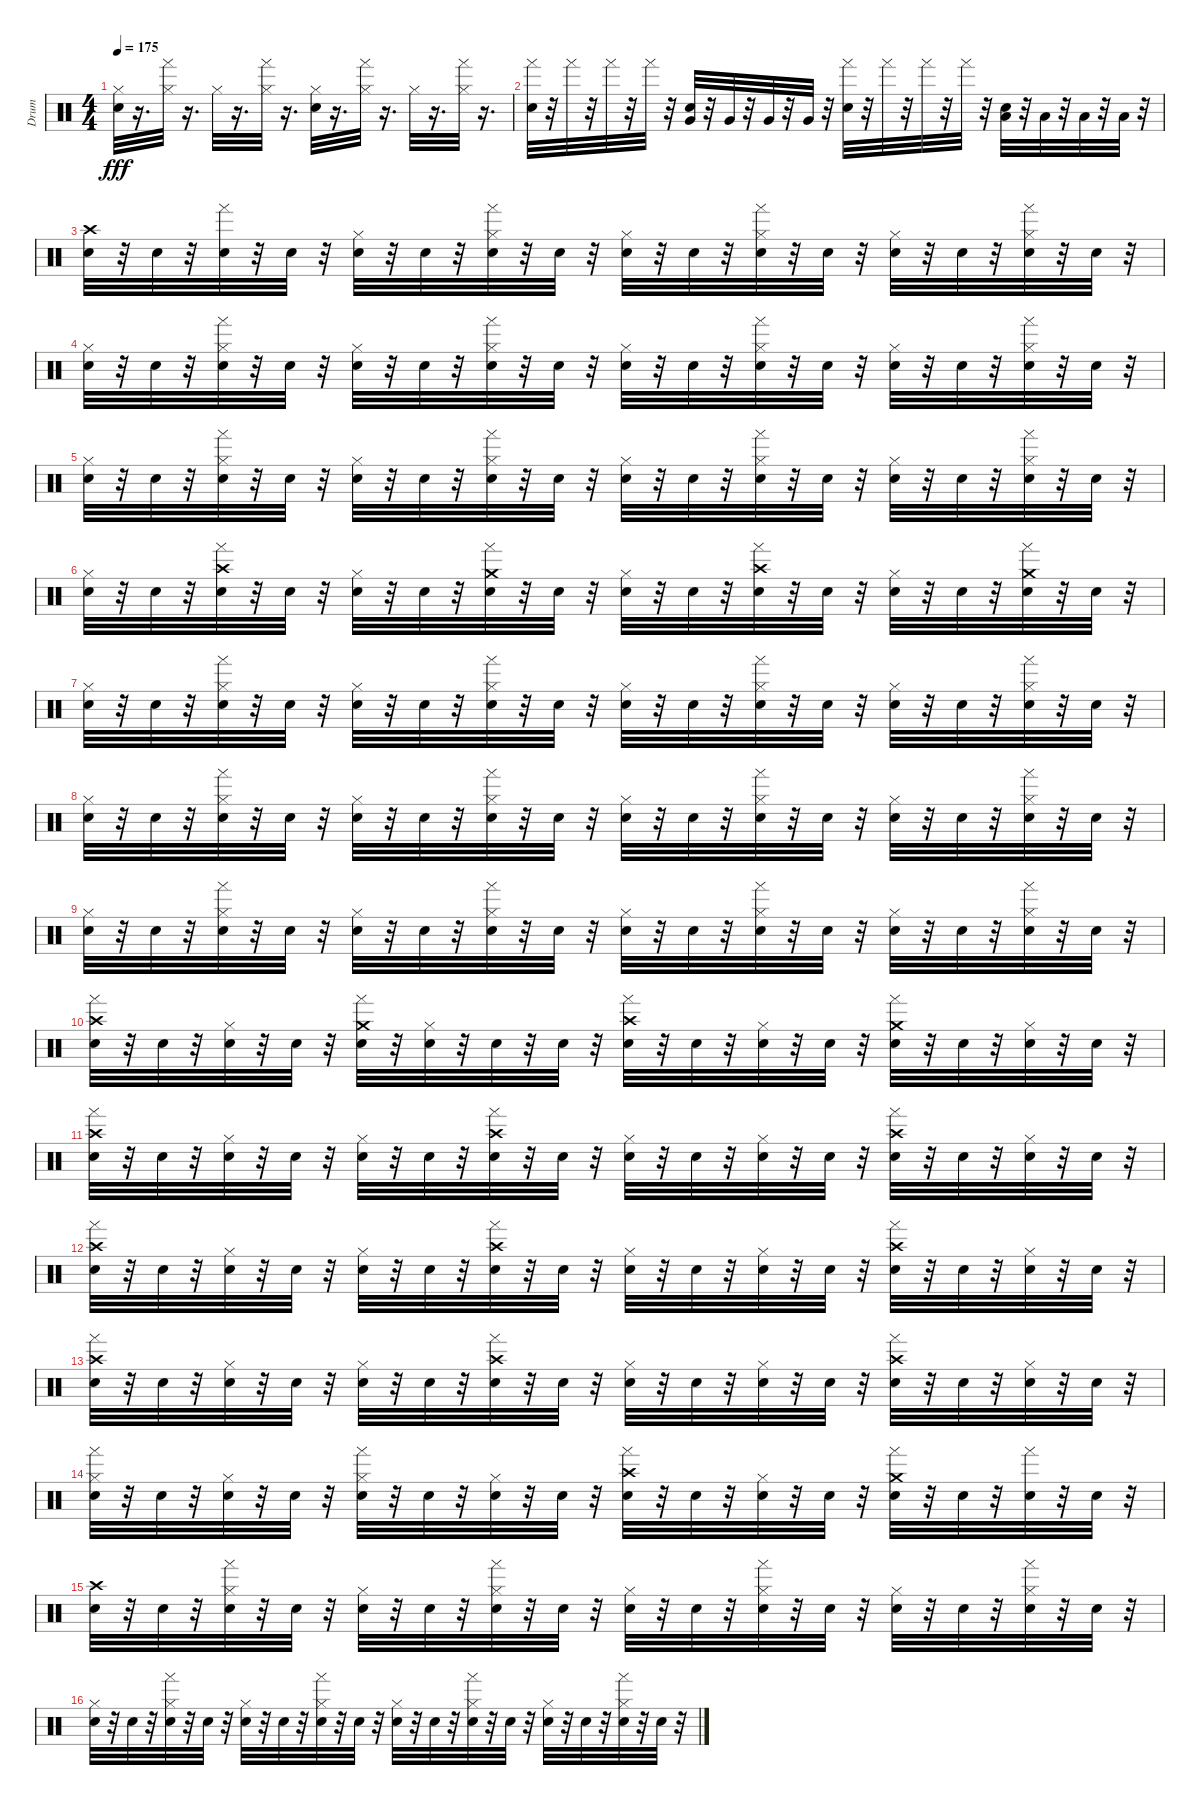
\track ("Drum" "Drum") {instrument percussion}
\staff {score}
\articulation defaults
\ts (4 4)
\tempo 175
\clef neutral
\ks c
("Hi-Hat (closed)" "Snare (hit)").32{dy fff} r.16{d} ("Hi-Hat (closed)" "Tambourine (hand)").32 r.16{d} "Hi-Hat (closed)".32 r.16{d} ("Hi-Hat (closed)" "Tambourine (hand)").32 r.16{d} ("Hi-Hat (closed)" "Snare (hit)").32 r.16{d} ("Hi-Hat (closed)" "Tambourine (hand)").32 r.16{d} "Hi-Hat (closed)".32 r.16{d} ("Hi-Hat (closed)" "Tambourine (hand)").32 r.16{d} |
("Tambourine (hand)" "Snare (hit)").32 r.32 "Tambourine (hand)".32 r.32 "Tambourine (hand)".32 r.32 "Tambourine (hand)".32 r.32 ("Snare (hit)" "Very Low Tom (hit)").32 r.32 "Very Low Tom (hit)".32 r.32 "Very Low Tom (hit)".32 r.32 "Very Low Tom (hit)".32 r.32 ("Tambourine (hand)" "Snare (hit)").32 r.32 "Tambourine (hand)".32 r.32 "Tambourine (hand)".32 r.32 "Tambourine (hand)".32 r.32 ("Low Floor Tom (hit)" "Snare (hit)").32 r.32 "Low Floor Tom (hit)".32 r.32 "Low Floor Tom (hit)".32 r.32 "Low Floor Tom (hit)".32 r.32 |
("Crash high (hit)" "Snare (hit)").32 r.32 "Snare (hit)".32 r.32 ("Tambourine (hand)" "Snare (hit)").32 r.32 "Snare (hit)".32 r.32 ("Hi-Hat (closed)" "Snare (hit)").32 r.32 "Snare (hit)".32 r.32 ("Hi-Hat (closed)" "Tambourine (hand)" "Snare (hit)").32 r.32 "Snare (hit)".32 r.32 ("Hi-Hat (closed)" "Snare (hit)").32 r.32 "Snare (hit)".32 r.32 ("Hi-Hat (closed)" "Tambourine (hand)" "Snare (hit)").32 r.32 "Snare (hit)".32 r.32 ("Hi-Hat (closed)" "Snare (hit)").32 r.32 "Snare (hit)".32 r.32 ("Hi-Hat (closed)" "Tambourine (hand)" "Snare (hit)").32 r.32 "Snare (hit)".32 r.32 |
("Hi-Hat (closed)" "Snare (hit)").32 r.32 "Snare (hit)".32 r.32 ("Hi-Hat (closed)" "Tambourine (hand)" "Snare (hit)").32 r.32 "Snare (hit)".32 r.32 ("Hi-Hat (closed)" "Snare (hit)").32 r.32 "Snare (hit)".32 r.32 ("Hi-Hat (closed)" "Tambourine (hand)" "Snare (hit)").32 r.32 "Snare (hit)".32 r.32 ("Hi-Hat (closed)" "Snare (hit)").32 r.32 "Snare (hit)".32 r.32 ("Hi-Hat (closed)" "Tambourine (hand)" "Snare (hit)").32 r.32 "Snare (hit)".32 r.32 ("Hi-Hat (closed)" "Snare (hit)").32 r.32 "Snare (hit)".32 r.32 ("Hi-Hat (closed)" "Tambourine (hand)" "Snare (hit)").32 r.32 "Snare (hit)".32 r.32 |
("Hi-Hat (closed)" "Snare (hit)").32 r.32 "Snare (hit)".32 r.32 ("Hi-Hat (closed)" "Tambourine (hand)" "Snare (hit)").32 r.32 "Snare (hit)".32 r.32 ("Hi-Hat (closed)" "Snare (hit)").32 r.32 "Snare (hit)".32 r.32 ("Hi-Hat (closed)" "Tambourine (hand)" "Snare (hit)").32 r.32 "Snare (hit)".32 r.32 ("Hi-Hat (closed)" "Snare (hit)").32 r.32 "Snare (hit)".32 r.32 ("Hi-Hat (closed)" "Tambourine (hand)" "Snare (hit)").32 r.32 "Snare (hit)".32 r.32 ("Hi-Hat (closed)" "Snare (hit)").32 r.32 "Snare (hit)".32 r.32 ("Hi-Hat (closed)" "Tambourine (hand)" "Snare (hit)").32 r.32 "Snare (hit)".32 r.32 |
("Hi-Hat (closed)" "Snare (hit)").32 r.32 "Snare (hit)".32 r.32 ("Crash high (hit)" "Tambourine (hand)" "Snare (hit)").32 r.32 "Snare (hit)".32 r.32 ("Hi-Hat (closed)" "Snare (hit)").32 r.32 "Snare (hit)".32 r.32 ("Crash medium (hit)" "Tambourine (hand)" "Snare (hit)").32 r.32 "Snare (hit)".32 r.32 ("Hi-Hat (closed)" "Snare (hit)").32 r.32 "Snare (hit)".32 r.32 ("Crash high (hit)" "Tambourine (hand)" "Snare (hit)").32 r.32 "Snare (hit)".32 r.32 ("Hi-Hat (closed)" "Snare (hit)").32 r.32 "Snare (hit)".32 r.32 ("Crash medium (hit)" "Tambourine (hand)" "Snare (hit)").32 r.32 "Snare (hit)".32 r.32 |
("Hi-Hat (closed)" "Snare (hit)").32 r.32 "Snare (hit)".32 r.32 ("Hi-Hat (closed)" "Tambourine (hand)" "Snare (hit)").32 r.32 "Snare (hit)".32 r.32 ("Hi-Hat (closed)" "Snare (hit)").32 r.32 "Snare (hit)".32 r.32 ("Hi-Hat (closed)" "Tambourine (hand)" "Snare (hit)").32 r.32 "Snare (hit)".32 r.32 ("Hi-Hat (closed)" "Snare (hit)").32 r.32 "Snare (hit)".32 r.32 ("Hi-Hat (closed)" "Tambourine (hand)" "Snare (hit)").32 r.32 "Snare (hit)".32 r.32 ("Hi-Hat (closed)" "Snare (hit)").32 r.32 "Snare (hit)".32 r.32 ("Hi-Hat (closed)" "Tambourine (hand)" "Snare (hit)").32 r.32 "Snare (hit)".32 r.32 |
("Hi-Hat (closed)" "Snare (hit)").32 r.32 "Snare (hit)".32 r.32 ("Hi-Hat (closed)" "Tambourine (hand)" "Snare (hit)").32 r.32 "Snare (hit)".32 r.32 ("Hi-Hat (closed)" "Snare (hit)").32 r.32 "Snare (hit)".32 r.32 ("Hi-Hat (closed)" "Tambourine (hand)" "Snare (hit)").32 r.32 "Snare (hit)".32 r.32 ("Hi-Hat (closed)" "Snare (hit)").32 r.32 "Snare (hit)".32 r.32 ("Hi-Hat (closed)" "Tambourine (hand)" "Snare (hit)").32 r.32 "Snare (hit)".32 r.32 ("Hi-Hat (closed)" "Snare (hit)").32 r.32 "Snare (hit)".32 r.32 ("Hi-Hat (closed)" "Tambourine (hand)" "Snare (hit)").32 r.32 "Snare (hit)".32 r.32 |
("Hi-Hat (closed)" "Snare (hit)").32 r.32 "Snare (hit)".32 r.32 ("Hi-Hat (closed)" "Tambourine (hand)" "Snare (hit)").32 r.32 "Snare (hit)".32 r.32 ("Hi-Hat (closed)" "Snare (hit)").32 r.32 "Snare (hit)".32 r.32 ("Hi-Hat (closed)" "Tambourine (hand)" "Snare (hit)").32 r.32 "Snare (hit)".32 r.32 ("Hi-Hat (closed)" "Snare (hit)").32 r.32 "Snare (hit)".32 r.32 ("Hi-Hat (closed)" "Tambourine (hand)" "Snare (hit)").32 r.32 "Snare (hit)".32 r.32 ("Hi-Hat (closed)" "Snare (hit)").32 r.32 "Snare (hit)".32 r.32 ("Hi-Hat (closed)" "Tambourine (hand)" "Snare (hit)").32 r.32 "Snare (hit)".32 r.32 |
("Crash high (hit)" "Tambourine (hand)" "Snare (hit)").32 r.32 "Snare (hit)".32 r.32 ("Hi-Hat (closed)" "Snare (hit)").32 r.32 "Snare (hit)".32 r.32 ("Crash medium (hit)" "Tambourine (hand)" "Snare (hit)").32 r.32 ("Hi-Hat (closed)" "Snare (hit)").32 r.32 "Snare (hit)".32 r.32 "Snare (hit)".32 r.32 ("Crash high (hit)" "Tambourine (hand)" "Snare (hit)").32 r.32 "Snare (hit)".32 r.32 ("Hi-Hat (closed)" "Snare (hit)").32 r.32 "Snare (hit)".32 r.32 ("Crash medium (hit)" "Tambourine (hand)" "Snare (hit)").32 r.32 "Snare (hit)".32 r.32 ("Hi-Hat (closed)" "Snare (hit)").32 r.32 "Snare (hit)".32 r.32 |
("Crash high (hit)" "Tambourine (hand)" "Snare (hit)").32 r.32 "Snare (hit)".32 r.32 ("Hi-Hat (closed)" "Snare (hit)").32 r.32 "Snare (hit)".32 r.32 ("Hi-Hat (closed)" "Snare (hit)").32 r.32 "Snare (hit)".32 r.32 ("Crash high (hit)" "Tambourine (hand)" "Snare (hit)").32 r.32 "Snare (hit)".32 r.32 ("Hi-Hat (closed)" "Snare (hit)").32 r.32 "Snare (hit)".32 r.32 ("Hi-Hat (closed)" "Snare (hit)").32 r.32 "Snare (hit)".32 r.32 ("Crash high (hit)" "Tambourine (hand)" "Snare (hit)").32 r.32 "Snare (hit)".32 r.32 ("Hi-Hat (closed)" "Snare (hit)").32 r.32 "Snare (hit)".32 r.32 |
("Crash high (hit)" "Tambourine (hand)" "Snare (hit)").32 r.32 "Snare (hit)".32 r.32 ("Hi-Hat (closed)" "Snare (hit)").32 r.32 "Snare (hit)".32 r.32 ("Hi-Hat (closed)" "Snare (hit)").32 r.32 "Snare (hit)".32 r.32 ("Crash high (hit)" "Tambourine (hand)" "Snare (hit)").32 r.32 "Snare (hit)".32 r.32 ("Hi-Hat (closed)" "Snare (hit)").32 r.32 "Snare (hit)".32 r.32 ("Hi-Hat (closed)" "Snare (hit)").32 r.32 "Snare (hit)".32 r.32 ("Crash high (hit)" "Tambourine (hand)" "Snare (hit)").32 r.32 "Snare (hit)".32 r.32 ("Hi-Hat (closed)" "Snare (hit)").32 r.32 "Snare (hit)".32 r.32 |
("Crash high (hit)" "Tambourine (hand)" "Snare (hit)").32 r.32 "Snare (hit)".32 r.32 ("Hi-Hat (closed)" "Snare (hit)").32 r.32 "Snare (hit)".32 r.32 ("Hi-Hat (closed)" "Snare (hit)").32 r.32 "Snare (hit)".32 r.32 ("Crash high (hit)" "Tambourine (hand)" "Snare (hit)").32 r.32 "Snare (hit)".32 r.32 ("Hi-Hat (closed)" "Snare (hit)").32 r.32 "Snare (hit)".32 r.32 ("Hi-Hat (closed)" "Snare (hit)").32 r.32 "Snare (hit)".32 r.32 ("Crash high (hit)" "Tambourine (hand)" "Snare (hit)").32 r.32 "Snare (hit)".32 r.32 ("Hi-Hat (closed)" "Snare (hit)").32 r.32 "Snare (hit)".32 r.32 |
("Hi-Hat (closed)" "Tambourine (hand)" "Snare (hit)").32 r.32 "Snare (hit)".32 r.32 ("Hi-Hat (closed)" "Snare (hit)").32 r.32 "Snare (hit)".32 r.32 ("Hi-Hat (closed)" "Tambourine (hand)" "Snare (hit)").32 r.32 "Snare (hit)".32 r.32 ("Hi-Hat (closed)" "Snare (hit)").32 r.32 "Snare (hit)".32 r.32 ("Crash high (hit)" "Tambourine (hand)" "Snare (hit)").32 r.32 "Snare (hit)".32 r.32 ("Hi-Hat (closed)" "Snare (hit)").32 r.32 "Snare (hit)".32 r.32 ("Crash medium (hit)" "Tambourine (hand)" "Snare (hit)").32 r.32 "Snare (hit)".32 r.32 ("Tambourine (hand)" "Snare (hit)").32 r.32 "Snare (hit)".32 r.32 |
("Crash high (hit)" "Snare (hit)").32 r.32 "Snare (hit)".32 r.32 ("Hi-Hat (closed)" "Tambourine (hand)" "Snare (hit)").32 r.32 "Snare (hit)".32 r.32 ("Hi-Hat (closed)" "Snare (hit)").32 r.32 "Snare (hit)".32 r.32 ("Hi-Hat (closed)" "Tambourine (hand)" "Snare (hit)").32 r.32 "Snare (hit)".32 r.32 ("Hi-Hat (closed)" "Snare (hit)").32 r.32 "Snare (hit)".32 r.32 ("Hi-Hat (closed)" "Tambourine (hand)" "Snare (hit)").32 r.32 "Snare (hit)".32 r.32 ("Hi-Hat (closed)" "Snare (hit)").32 r.32 "Snare (hit)".32 r.32 ("Hi-Hat (closed)" "Tambourine (hand)" "Snare (hit)").32 r.32 "Snare (hit)".32 r.32 |
("Hi-Hat (closed)" "Snare (hit)").32 r.32 "Snare (hit)".32 r.32 ("Hi-Hat (closed)" "Tambourine (hand)" "Snare (hit)").32 r.32 "Snare (hit)".32 r.32 ("Hi-Hat (closed)" "Snare (hit)").32 r.32 "Snare (hit)".32 r.32 ("Hi-Hat (closed)" "Tambourine (hand)" "Snare (hit)").32 r.32 "Snare (hit)".32 r.32 ("Hi-Hat (closed)" "Snare (hit)").32 r.32 "Snare (hit)".32 r.32 ("Hi-Hat (closed)" "Tambourine (hand)" "Snare (hit)").32 r.32 "Snare (hit)".32 r.32 ("Hi-Hat (closed)" "Snare (hit)").32 r.32 "Snare (hit)".32 r.32 ("Hi-Hat (closed)" "Tambourine (hand)" "Snare (hit)").32 r.32 "Snare (hit)".32 r.32
